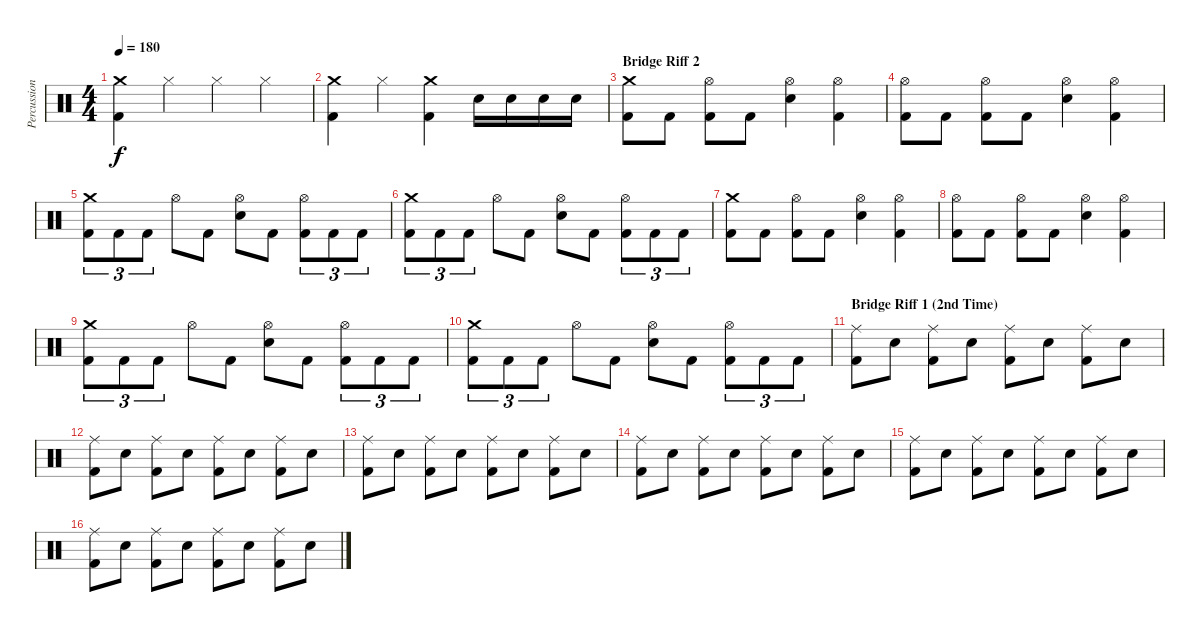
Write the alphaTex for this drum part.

\track ("Percussion" "Percussion") {instrument percussion}
\staff {score}
\articulation defaults
\ts (4 4)
\tempo 180
\clef neutral
\ks c
("Crash medium (hit)" "Kick (hit) 2").4{dy f} "Hi-Hat (closed)".4 "Hi-Hat (closed)".4 "Hi-Hat (closed)".4 |
("Crash medium (hit)" "Kick (hit) 2").4 "Hi-Hat (closed)".4 ("Crash medium (hit)" "Kick (hit) 2").4 "Electric Snare (hit)".16 "Electric Snare (hit)".16 "Electric Snare (hit)".16 "Electric Snare (hit)".16 |
\section ("" "Bridge Riff 2")
("Crash medium (hit)" "Kick (hit) 2").8 "Kick (hit) 2".8 ("Hi-Hat (open)" "Kick (hit) 2").8 "Kick (hit) 2".8 ("Hi-Hat (open)" "Electric Snare (hit)").4 ("Hi-Hat (open)" "Kick (hit) 2").4 |
("Hi-Hat (open)" "Kick (hit) 2").8 "Kick (hit) 2".8 ("Hi-Hat (open)" "Kick (hit) 2").8 "Kick (hit) 2".8 ("Hi-Hat (open)" "Electric Snare (hit)").4 ("Hi-Hat (open)" "Kick (hit) 2").4 |
("Crash medium (hit)" "Kick (hit) 2").8{tu (3 2)} "Kick (hit) 2".8{tu (3 2)} "Kick (hit) 2".8{tu (3 2)} "Hi-Hat (open)".8 "Kick (hit) 2".8 ("Hi-Hat (open)" "Electric Snare (hit)").8 "Kick (hit) 2".8 ("Hi-Hat (open)" "Kick (hit) 2").8{tu (3 2)} "Kick (hit) 2".8{tu (3 2)} "Kick (hit) 2".8{tu (3 2)} |
("Crash medium (hit)" "Kick (hit) 2").8{tu (3 2)} "Kick (hit) 2".8{tu (3 2)} "Kick (hit) 2".8{tu (3 2)} "Hi-Hat (open)".8 "Kick (hit) 2".8 ("Hi-Hat (open)" "Electric Snare (hit)").8 "Kick (hit) 2".8 ("Hi-Hat (open)" "Kick (hit) 2").8{tu (3 2)} "Kick (hit) 2".8{tu (3 2)} "Kick (hit) 2".8{tu (3 2)} |
("Crash medium (hit)" "Kick (hit) 2").8 "Kick (hit) 2".8 ("Hi-Hat (open)" "Kick (hit) 2").8 "Kick (hit) 2".8 ("Hi-Hat (open)" "Electric Snare (hit)").4 ("Hi-Hat (open)" "Kick (hit) 2").4 |
("Hi-Hat (open)" "Kick (hit) 2").8 "Kick (hit) 2".8 ("Hi-Hat (open)" "Kick (hit) 2").8 "Kick (hit) 2".8 ("Hi-Hat (open)" "Electric Snare (hit)").4 ("Hi-Hat (open)" "Kick (hit) 2").4 |
("Crash medium (hit)" "Kick (hit) 2").8{tu (3 2)} "Kick (hit) 2".8{tu (3 2)} "Kick (hit) 2".8{tu (3 2)} "Hi-Hat (open)".8 "Kick (hit) 2".8 ("Hi-Hat (open)" "Electric Snare (hit)").8 "Kick (hit) 2".8 ("Hi-Hat (open)" "Kick (hit) 2").8{tu (3 2)} "Kick (hit) 2".8{tu (3 2)} "Kick (hit) 2".8{tu (3 2)} |
("Crash medium (hit)" "Kick (hit) 2").8{tu (3 2)} "Kick (hit) 2".8{tu (3 2)} "Kick (hit) 2".8{tu (3 2)} "Hi-Hat (open)".8 "Kick (hit) 2".8 ("Hi-Hat (open)" "Electric Snare (hit)").8 "Kick (hit) 2".8 ("Hi-Hat (open)" "Kick (hit) 2").8{tu (3 2)} "Kick (hit) 2".8{tu (3 2)} "Kick (hit) 2".8{tu (3 2)} |
\section ("" "Bridge Riff 1 (2nd Time)")
("Ride (middle)" "Kick (hit) 2").8 "Electric Snare (hit)".8 ("Ride (middle)" "Kick (hit) 2").8 "Electric Snare (hit)".8 ("Ride (middle)" "Kick (hit) 2").8 "Electric Snare (hit)".8 ("Ride (middle)" "Kick (hit) 2").8 "Electric Snare (hit)".8 |
("Ride (middle)" "Kick (hit) 2").8 "Electric Snare (hit)".8 ("Ride (middle)" "Kick (hit) 2").8 "Electric Snare (hit)".8 ("Ride (middle)" "Kick (hit) 2").8 "Electric Snare (hit)".8 ("Ride (middle)" "Kick (hit) 2").8 "Electric Snare (hit)".8 |
("Ride (middle)" "Kick (hit) 2").8 "Electric Snare (hit)".8 ("Ride (middle)" "Kick (hit) 2").8 "Electric Snare (hit)".8 ("Ride (middle)" "Kick (hit) 2").8 "Electric Snare (hit)".8 ("Ride (middle)" "Kick (hit) 2").8 "Electric Snare (hit)".8 |
("Ride (middle)" "Kick (hit) 2").8 "Electric Snare (hit)".8 ("Ride (middle)" "Kick (hit) 2").8 "Electric Snare (hit)".8 ("Ride (middle)" "Kick (hit) 2").8 "Electric Snare (hit)".8 ("Ride (middle)" "Kick (hit) 2").8 "Electric Snare (hit)".8 |
("Ride (middle)" "Kick (hit) 2").8 "Electric Snare (hit)".8 ("Ride (middle)" "Kick (hit) 2").8 "Electric Snare (hit)".8 ("Ride (middle)" "Kick (hit) 2").8 "Electric Snare (hit)".8 ("Ride (middle)" "Kick (hit) 2").8 "Electric Snare (hit)".8 |
("Ride (middle)" "Kick (hit) 2").8 "Electric Snare (hit)".8 ("Ride (middle)" "Kick (hit) 2").8 "Electric Snare (hit)".8 ("Ride (middle)" "Kick (hit) 2").8 "Electric Snare (hit)".8 ("Ride (middle)" "Kick (hit) 2").8 "Electric Snare (hit)".8
